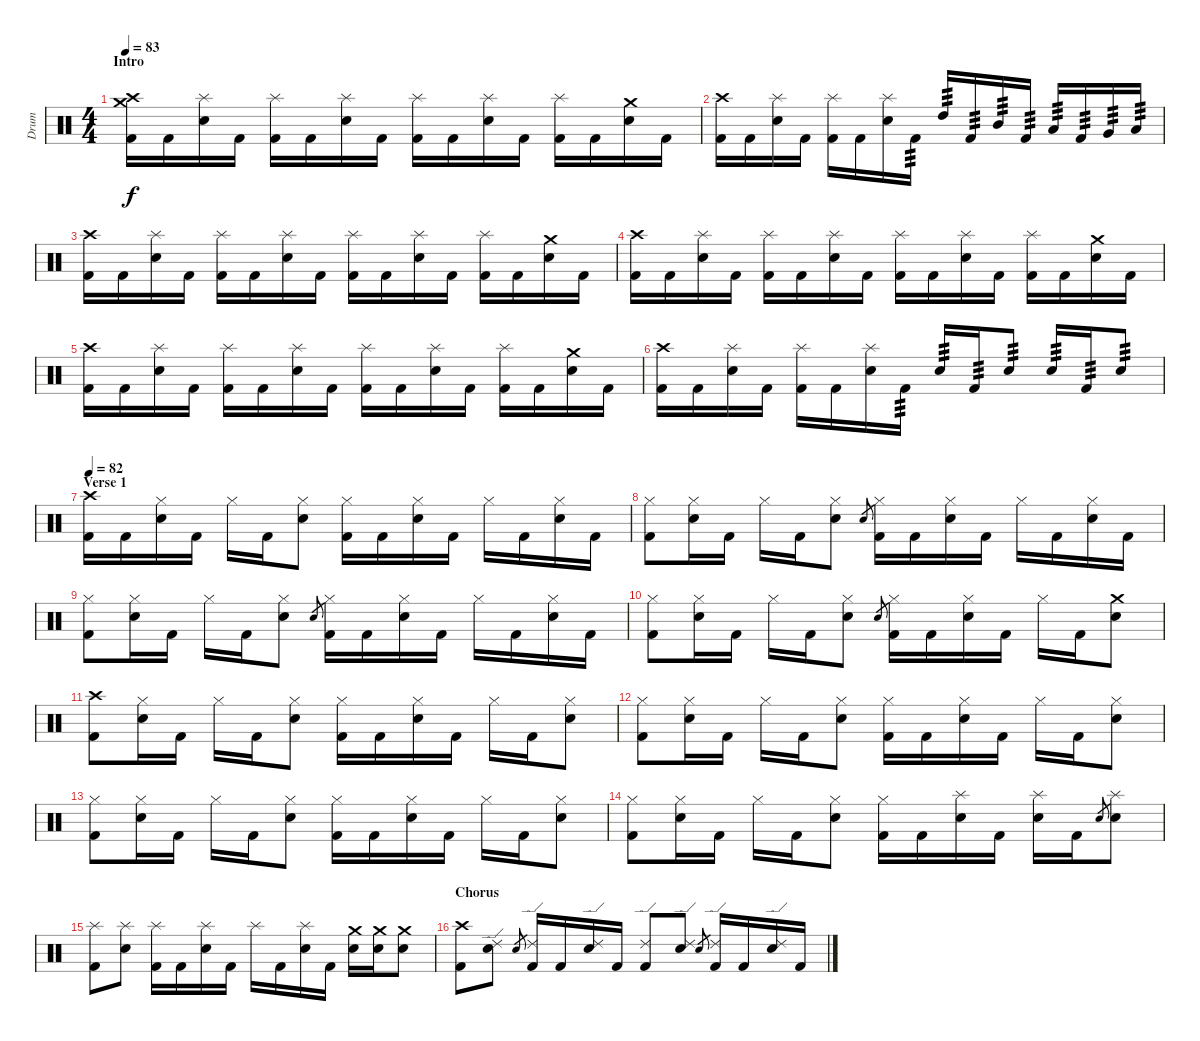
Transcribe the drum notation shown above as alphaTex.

\track ("Drum" "Drum") {instrument percussion}
\staff {score}
\articulation defaults
\ts (4 4)
\section ("" "Intro")
\tempo 83
\clef neutral
\ks c
("Kick (hit) 2" "Crash high (hit)" "Crash medium (hit)").16{dy f} "Kick (hit) 2".16 ("Splash (hit)" "Electric Snare (hit)").16 "Kick (hit) 2".16 ("Splash (hit)" "Kick (hit) 2").16 "Kick (hit) 2".16 ("Splash (hit)" "Electric Snare (hit)").16 "Kick (hit) 2".16 ("Splash (hit)" "Kick (hit) 2").16 "Kick (hit) 2".16 ("Splash (hit)" "Electric Snare (hit)").16 "Kick (hit) 2".16 ("Splash (hit)" "Kick (hit) 2").16 "Kick (hit) 2".16 ("Electric Snare (hit)" "Crash medium (hit)").16 "Kick (hit) 2".16 |
("Kick (hit) 2" "Crash high (hit)").16 "Kick (hit) 2".16 ("Splash (hit)" "Electric Snare (hit)").16 "Kick (hit) 2".16 ("Splash (hit)" "Kick (hit) 2").16 "Kick (hit) 2".16 ("Splash (hit)" "Electric Snare (hit)").16 "Kick (hit) 2".16{tp 3} "High Tom (hit)".16{tp 3} "Kick (hit) 2".16{tp 3} "Mid Tom (hit)".16{tp 3} "Kick (hit) 2".16{tp 3} "Low Tom (hit)".16{tp 3} "Kick (hit) 2".16{tp 3} "Very Low Tom (hit)".16{tp 3} "Low Floor Tom (hit)".16{tp 3} |
("Kick (hit) 2" "Crash high (hit)").16 "Kick (hit) 2".16 ("Splash (hit)" "Electric Snare (hit)").16 "Kick (hit) 2".16 ("Splash (hit)" "Kick (hit) 2").16 "Kick (hit) 2".16 ("Splash (hit)" "Electric Snare (hit)").16 "Kick (hit) 2".16 ("Splash (hit)" "Kick (hit) 2").16 "Kick (hit) 2".16 ("Splash (hit)" "Electric Snare (hit)").16 "Kick (hit) 2".16 ("Splash (hit)" "Kick (hit) 2").16 "Kick (hit) 2".16 ("Electric Snare (hit)" "Crash medium (hit)").16 "Kick (hit) 2".16 |
("Kick (hit) 2" "Crash high (hit)").16 "Kick (hit) 2".16 ("Splash (hit)" "Electric Snare (hit)").16 "Kick (hit) 2".16 ("Splash (hit)" "Kick (hit) 2").16 "Kick (hit) 2".16 ("Splash (hit)" "Electric Snare (hit)").16 "Kick (hit) 2".16 ("Splash (hit)" "Kick (hit) 2").16 "Kick (hit) 2".16 ("Splash (hit)" "Electric Snare (hit)").16 "Kick (hit) 2".16 ("Splash (hit)" "Kick (hit) 2").16 "Kick (hit) 2".16 ("Electric Snare (hit)" "Crash medium (hit)").16 "Kick (hit) 2".16 |
("Kick (hit) 2" "Crash high (hit)").16 "Kick (hit) 2".16 ("Splash (hit)" "Electric Snare (hit)").16 "Kick (hit) 2".16 ("Splash (hit)" "Kick (hit) 2").16 "Kick (hit) 2".16 ("Splash (hit)" "Electric Snare (hit)").16 "Kick (hit) 2".16 ("Splash (hit)" "Kick (hit) 2").16 "Kick (hit) 2".16 ("Splash (hit)" "Electric Snare (hit)").16 "Kick (hit) 2".16 ("Splash (hit)" "Kick (hit) 2").16 "Kick (hit) 2".16 ("Electric Snare (hit)" "Crash medium (hit)").16 "Kick (hit) 2".16 |
("Kick (hit) 2" "Crash high (hit)").16 "Kick (hit) 2".16 ("Splash (hit)" "Electric Snare (hit)").16 "Kick (hit) 2".16 ("Splash (hit)" "Kick (hit) 2").16 "Kick (hit) 2".16 ("Splash (hit)" "Electric Snare (hit)").16 "Kick (hit) 2".16{tp 3} "Electric Snare (hit)".16{tp 3} "Kick (hit) 2".16{tp 3} "Electric Snare (hit)".8{tp 3} "Electric Snare (hit)".16{tp 3} "Kick (hit) 2".16{tp 3} "Electric Snare (hit)".8{tp 3} |
\section ("" "Verse 1")
\tempo 82
("Kick (hit) 2" "Crash high (hit)").16 "Kick (hit) 2".16 ("Hi-Hat (closed)" "Electric Snare (hit)").16 "Kick (hit) 2".16 "Hi-Hat (closed)".16 "Kick (hit) 2".16 ("Hi-Hat (closed)" "Electric Snare (hit)").8 ("Hi-Hat (closed)" "Kick (hit) 2").16 "Kick (hit) 2".16 ("Hi-Hat (closed)" "Electric Snare (hit)").16 "Kick (hit) 2".16 "Hi-Hat (closed)".16 "Kick (hit) 2".16 ("Hi-Hat (closed)" "Electric Snare (hit)").16 "Kick (hit) 2".16 |
("Hi-Hat (closed)" "Kick (hit) 2").8 ("Hi-Hat (closed)" "Electric Snare (hit)").16 "Kick (hit) 2".16 "Hi-Hat (closed)".16 "Kick (hit) 2".16 ("Hi-Hat (closed)" "Electric Snare (hit)").8 "Electric Snare (hit)".8{gr} ("Hi-Hat (closed)" "Kick (hit) 2").16 "Kick (hit) 2".16 ("Hi-Hat (closed)" "Electric Snare (hit)").16 "Kick (hit) 2".16 "Hi-Hat (closed)".16 "Kick (hit) 2".16 ("Hi-Hat (closed)" "Electric Snare (hit)").16 "Kick (hit) 2".16 |
("Hi-Hat (closed)" "Kick (hit) 2").8 ("Hi-Hat (closed)" "Electric Snare (hit)").16 "Kick (hit) 2".16 "Hi-Hat (closed)".16 "Kick (hit) 2".16 ("Hi-Hat (closed)" "Electric Snare (hit)").8 "Electric Snare (hit)".8{gr} ("Hi-Hat (closed)" "Kick (hit) 2").16 "Kick (hit) 2".16 ("Hi-Hat (closed)" "Electric Snare (hit)").16 "Kick (hit) 2".16 "Hi-Hat (closed)".16 "Kick (hit) 2".16 ("Hi-Hat (closed)" "Electric Snare (hit)").16 "Kick (hit) 2".16 |
("Hi-Hat (closed)" "Kick (hit) 2").8 ("Hi-Hat (closed)" "Electric Snare (hit)").16 "Kick (hit) 2".16 "Hi-Hat (closed)".16 "Kick (hit) 2".16 ("Hi-Hat (closed)" "Electric Snare (hit)").8 "Electric Snare (hit)".8{gr} ("Hi-Hat (closed)" "Kick (hit) 2").16 "Kick (hit) 2".16 ("Hi-Hat (closed)" "Electric Snare (hit)").16 "Kick (hit) 2".16 "Hi-Hat (closed)".16 "Kick (hit) 2".16 ("Electric Snare (hit)" "Crash medium (hit)").8 |
\section ("" "")
("Kick (hit) 2" "Crash high (hit)").8 ("Hi-Hat (closed)" "Electric Snare (hit)").16 "Kick (hit) 2".16 "Hi-Hat (closed)".16 "Kick (hit) 2".16 ("Hi-Hat (closed)" "Electric Snare (hit)").8 ("Hi-Hat (closed)" "Kick (hit) 2").16 "Kick (hit) 2".16 ("Hi-Hat (closed)" "Electric Snare (hit)").16 "Kick (hit) 2".16 "Hi-Hat (closed)".16 "Kick (hit) 2".16 ("Hi-Hat (closed)" "Electric Snare (hit)").8 |
("Hi-Hat (closed)" "Kick (hit) 2").8 ("Hi-Hat (closed)" "Electric Snare (hit)").16 "Kick (hit) 2".16 "Hi-Hat (closed)".16 "Kick (hit) 2".16 ("Hi-Hat (closed)" "Electric Snare (hit)").8 ("Hi-Hat (closed)" "Kick (hit) 2").16 "Kick (hit) 2".16 ("Hi-Hat (closed)" "Electric Snare (hit)").16 "Kick (hit) 2".16 "Hi-Hat (closed)".16 "Kick (hit) 2".16 ("Hi-Hat (closed)" "Electric Snare (hit)").8 |
("Hi-Hat (closed)" "Kick (hit) 2").8 ("Hi-Hat (closed)" "Electric Snare (hit)").16 "Kick (hit) 2".16 "Hi-Hat (closed)".16 "Kick (hit) 2".16 ("Hi-Hat (closed)" "Electric Snare (hit)").8 ("Hi-Hat (closed)" "Kick (hit) 2").16 "Kick (hit) 2".16 ("Hi-Hat (closed)" "Electric Snare (hit)").16 "Kick (hit) 2".16 "Hi-Hat (closed)".16 "Kick (hit) 2".16 ("Hi-Hat (closed)" "Electric Snare (hit)").8 |
("Hi-Hat (closed)" "Kick (hit) 2").8 ("Hi-Hat (closed)" "Electric Snare (hit)").16 "Kick (hit) 2".16 "Hi-Hat (closed)".16 "Kick (hit) 2".16 ("Hi-Hat (closed)" "Electric Snare (hit)").8 ("Hi-Hat (closed)" "Kick (hit) 2").16 "Kick (hit) 2".16 ("Splash (hit)" "Electric Snare (hit)").16 "Kick (hit) 2".16 ("Splash (hit)" "Electric Snare (hit)").16 "Kick (hit) 2".16 "Electric Snare (hit)".8{gr} ("Splash (hit)" "Electric Snare (hit)").8 |
("Splash (hit)" "Kick (hit) 2").8 ("Splash (hit)" "Electric Snare (hit)").8 ("Splash (hit)" "Kick (hit) 2").16 "Kick (hit) 2".16 ("Splash (hit)" "Electric Snare (hit)").16 "Kick (hit) 2".16 "Splash (hit)".16 "Kick (hit) 2".16 ("Splash (hit)" "Electric Snare (hit)").16 "Kick (hit) 2".16 ("Electric Snare (hit)" "Crash medium (hit)").16 ("Electric Snare (hit)" "Crash medium (hit)").16 ("Electric Snare (hit)" "Crash medium (hit)").8 |
\section ("" "Chorus")
("Kick (hit) 2" "Crash high (hit)").8 ("Ride (edge) 2" "Electric Snare (hit)").8 "Electric Snare (hit)".8{gr} ("Ride (edge) 2" "Kick (hit) 2").16 "Kick (hit) 2".16 ("Ride (edge) 2" "Electric Snare (hit)").16 "Kick (hit) 2".16 ("Ride (edge) 2" "Kick (hit) 2").8 ("Ride (edge) 2" "Electric Snare (hit)").8 "Electric Snare (hit)".8{gr} ("Ride (edge) 2" "Kick (hit) 2").16 "Kick (hit) 2".16 ("Ride (edge) 2" "Electric Snare (hit)").16 "Kick (hit) 2".16
